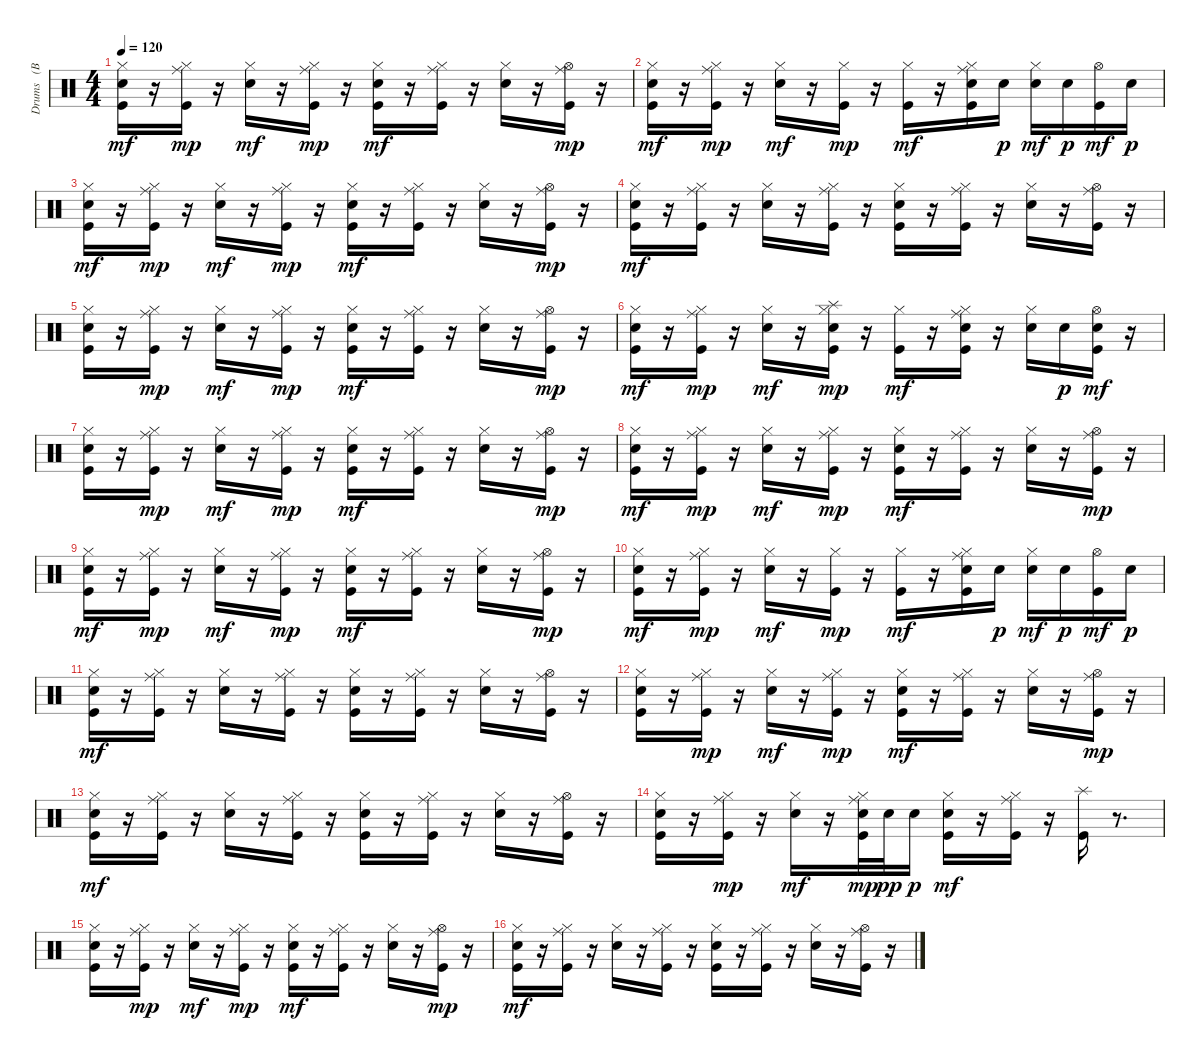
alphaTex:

\track ("Drums   (BB)" "Drums   (B") {instrument percussion}
\staff {score}
\articulation defaults
\ts (4 4)
\tempo 120
\clef neutral
\ks c
("Kick (hit)" "Electric Snare (hit)" "Hi-Hat (closed)").16{dy mf} r.16 ("Kick (hit)" "Hi-Hat (closed)" "Ride (middle)").16{dy mp} r.16 ("Electric Snare (hit)" "Hi-Hat (closed)").16{dy mf} r.16 ("Kick (hit)" "Hi-Hat (closed)" "Ride (middle)").16{dy mp} r.16 ("Kick (hit)" "Electric Snare (hit)" "Hi-Hat (closed)").16{dy mf} r.16 ("Kick (hit)" "Hi-Hat (closed)" "Ride (middle)").16 r.16 ("Electric Snare (hit)" "Hi-Hat (closed)").16 r.16 ("Kick (hit)" "Hi-Hat (open)" "Ride (middle)").16{dy mp} r.16 |
("Kick (hit)" "Electric Snare (hit)" "Hi-Hat (closed)").16{dy mf} r.16 ("Kick (hit)" "Hi-Hat (closed)" "Ride (middle)").16{dy mp} r.16 ("Electric Snare (hit)" "Hi-Hat (closed)").16{dy mf} r.16 ("Kick (hit)" "Hi-Hat (closed)").16{dy mp} r.16 ("Kick (hit)" "Hi-Hat (closed)").16{dy mf} r.16 ("Kick (hit)" "Electric Snare (hit)" "Hi-Hat (closed)" "Ride (middle)").16 "Electric Snare (hit)".16{dy p} ("Electric Snare (hit)" "Hi-Hat (closed)").16{dy mf} "Electric Snare (hit)".16{dy p} ("Kick (hit)" "Hi-Hat (open)").16{dy mf} "Electric Snare (hit)".16{dy p} |
("Kick (hit)" "Electric Snare (hit)" "Hi-Hat (closed)").16{dy mf} r.16 ("Kick (hit)" "Hi-Hat (closed)" "Ride (middle)").16{dy mp} r.16 ("Electric Snare (hit)" "Hi-Hat (closed)").16{dy mf} r.16 ("Kick (hit)" "Hi-Hat (closed)" "Ride (middle)").16{dy mp} r.16 ("Kick (hit)" "Electric Snare (hit)" "Hi-Hat (closed)").16{dy mf} r.16 ("Kick (hit)" "Hi-Hat (closed)" "Ride (middle)").16 r.16 ("Electric Snare (hit)" "Hi-Hat (closed)").16 r.16 ("Kick (hit)" "Hi-Hat (open)" "Ride (middle)").16{dy mp} r.16 |
("Kick (hit)" "Electric Snare (hit)" "Hi-Hat (closed)").16{dy mf} r.16 ("Kick (hit)" "Hi-Hat (closed)" "Ride (middle)").16 r.16 ("Electric Snare (hit)" "Hi-Hat (closed)").16 r.16 ("Kick (hit)" "Hi-Hat (closed)" "Ride (middle)").16 r.16 ("Kick (hit)" "Electric Snare (hit)" "Hi-Hat (closed)").16 r.16 ("Kick (hit)" "Hi-Hat (closed)" "Ride (middle)").16 r.16 ("Electric Snare (hit)" "Hi-Hat (closed)").16 r.16 ("Kick (hit)" "Hi-Hat (open)" "Ride (middle)").16 r.16 |
("Kick (hit)" "Electric Snare (hit)" "Hi-Hat (closed)").16 r.16 ("Kick (hit)" "Hi-Hat (closed)" "Ride (middle)").16{dy mp} r.16 ("Electric Snare (hit)" "Hi-Hat (closed)").16{dy mf} r.16 ("Kick (hit)" "Hi-Hat (closed)" "Ride (middle)").16{dy mp} r.16 ("Kick (hit)" "Electric Snare (hit)" "Hi-Hat (closed)").16{dy mf} r.16 ("Kick (hit)" "Hi-Hat (closed)" "Ride (middle)").16 r.16 ("Electric Snare (hit)" "Hi-Hat (closed)").16 r.16 ("Kick (hit)" "Hi-Hat (open)" "Ride (middle)").16{dy mp} r.16 |
("Kick (hit)" "Electric Snare (hit)" "Hi-Hat (closed)").16{dy mf} r.16 ("Kick (hit)" "Hi-Hat (closed)" "Ride (middle)").16{dy mp} r.16 ("Electric Snare (hit)" "Hi-Hat (closed)").16{dy mf} r.16 ("Kick (hit)" "Electric Snare (hit)" "Hi-Hat (closed)" "Splash (hit)").16{dy mp} r.16 ("Kick (hit)" "Hi-Hat (closed)").16{dy mf} r.16 ("Kick (hit)" "Electric Snare (hit)" "Hi-Hat (closed)" "Ride (middle)").16 r.16 ("Electric Snare (hit)" "Hi-Hat (closed)").16 "Electric Snare (hit)".16{dy p} ("Kick (hit)" "Electric Snare (hit)" "Hi-Hat (open)").16{dy mf} r.16 |
("Kick (hit)" "Electric Snare (hit)" "Hi-Hat (closed)").16 r.16 ("Kick (hit)" "Hi-Hat (closed)" "Ride (middle)").16{dy mp} r.16 ("Electric Snare (hit)" "Hi-Hat (closed)").16{dy mf} r.16 ("Kick (hit)" "Hi-Hat (closed)" "Ride (middle)").16{dy mp} r.16 ("Kick (hit)" "Electric Snare (hit)" "Hi-Hat (closed)").16{dy mf} r.16 ("Kick (hit)" "Hi-Hat (closed)" "Ride (middle)").16 r.16 ("Electric Snare (hit)" "Hi-Hat (closed)").16 r.16 ("Kick (hit)" "Hi-Hat (open)" "Ride (middle)").16{dy mp} r.16 |
("Kick (hit)" "Electric Snare (hit)" "Hi-Hat (closed)").16{dy mf} r.16 ("Kick (hit)" "Hi-Hat (closed)" "Ride (middle)").16{dy mp} r.16 ("Electric Snare (hit)" "Hi-Hat (closed)").16{dy mf} r.16 ("Kick (hit)" "Hi-Hat (closed)" "Ride (middle)").16{dy mp} r.16 ("Kick (hit)" "Electric Snare (hit)" "Hi-Hat (closed)").16{dy mf} r.16 ("Kick (hit)" "Hi-Hat (closed)" "Ride (middle)").16 r.16 ("Electric Snare (hit)" "Hi-Hat (closed)").16 r.16 ("Kick (hit)" "Hi-Hat (open)" "Ride (middle)").16{dy mp} r.16 |
("Kick (hit)" "Electric Snare (hit)" "Hi-Hat (closed)").16{dy mf} r.16 ("Kick (hit)" "Hi-Hat (closed)" "Ride (middle)").16{dy mp} r.16 ("Electric Snare (hit)" "Hi-Hat (closed)").16{dy mf} r.16 ("Kick (hit)" "Hi-Hat (closed)" "Ride (middle)").16{dy mp} r.16 ("Kick (hit)" "Electric Snare (hit)" "Hi-Hat (closed)").16{dy mf} r.16 ("Kick (hit)" "Hi-Hat (closed)" "Ride (middle)").16 r.16 ("Electric Snare (hit)" "Hi-Hat (closed)").16 r.16 ("Kick (hit)" "Hi-Hat (open)" "Ride (middle)").16{dy mp} r.16 |
("Kick (hit)" "Electric Snare (hit)" "Hi-Hat (closed)").16{dy mf} r.16 ("Kick (hit)" "Hi-Hat (closed)" "Ride (middle)").16{dy mp} r.16 ("Electric Snare (hit)" "Hi-Hat (closed)").16{dy mf} r.16 ("Kick (hit)" "Hi-Hat (closed)").16{dy mp} r.16 ("Kick (hit)" "Hi-Hat (closed)").16{dy mf} r.16 ("Kick (hit)" "Electric Snare (hit)" "Hi-Hat (closed)" "Ride (middle)").16 "Electric Snare (hit)".16{dy p} ("Electric Snare (hit)" "Hi-Hat (closed)").16{dy mf} "Electric Snare (hit)".16{dy p} ("Kick (hit)" "Hi-Hat (open)").16{dy mf} "Electric Snare (hit)".16{dy p} |
("Kick (hit)" "Electric Snare (hit)" "Hi-Hat (closed)").16{dy mf} r.16 ("Kick (hit)" "Hi-Hat (closed)" "Ride (middle)").16 r.16 ("Electric Snare (hit)" "Hi-Hat (closed)").16 r.16 ("Kick (hit)" "Hi-Hat (closed)" "Ride (middle)").16 r.16 ("Kick (hit)" "Electric Snare (hit)" "Hi-Hat (closed)").16 r.16 ("Kick (hit)" "Hi-Hat (closed)" "Ride (middle)").16 r.16 ("Electric Snare (hit)" "Hi-Hat (closed)").16 r.16 ("Kick (hit)" "Hi-Hat (open)" "Ride (middle)").16 r.16 |
("Kick (hit)" "Electric Snare (hit)" "Hi-Hat (closed)").16 r.16 ("Kick (hit)" "Hi-Hat (closed)" "Ride (middle)").16{dy mp} r.16 ("Electric Snare (hit)" "Hi-Hat (closed)").16{dy mf} r.16 ("Kick (hit)" "Hi-Hat (closed)" "Ride (middle)").16{dy mp} r.16 ("Kick (hit)" "Electric Snare (hit)" "Hi-Hat (closed)").16{dy mf} r.16 ("Kick (hit)" "Hi-Hat (closed)" "Ride (middle)").16 r.16 ("Electric Snare (hit)" "Hi-Hat (closed)").16 r.16 ("Kick (hit)" "Hi-Hat (open)" "Ride (middle)").16{dy mp} r.16 |
("Kick (hit)" "Electric Snare (hit)" "Hi-Hat (closed)").16{dy mf} r.16 ("Kick (hit)" "Hi-Hat (closed)" "Ride (middle)").16 r.16 ("Electric Snare (hit)" "Hi-Hat (closed)").16 r.16 ("Kick (hit)" "Hi-Hat (closed)" "Ride (middle)").16 r.16 ("Kick (hit)" "Electric Snare (hit)" "Hi-Hat (closed)").16 r.16 ("Kick (hit)" "Hi-Hat (closed)" "Ride (middle)").16 r.16 ("Electric Snare (hit)" "Hi-Hat (closed)").16 r.16 ("Kick (hit)" "Hi-Hat (open)" "Ride (middle)").16 r.16 |
("Kick (hit)" "Electric Snare (hit)" "Hi-Hat (closed)").16 r.16 ("Kick (hit)" "Hi-Hat (closed)" "Ride (middle)").16{dy mp} r.16 ("Electric Snare (hit)" "Hi-Hat (closed)").16{dy mf} r.16 ("Kick (hit)" "Electric Snare (hit)" "Hi-Hat (closed)" "Ride (middle)").32{dy mp} "Electric Snare (hit)".32{dy pp} "Electric Snare (hit)".16{dy p} ("Kick (hit)" "Electric Snare (hit)" "Hi-Hat (closed)").16{dy mf} r.16 ("Kick (hit)" "Hi-Hat (closed)" "Ride (middle)").16 r.16 ("Kick (hit)" "Splash (hit)").16 r.8{d} |
("Kick (hit)" "Electric Snare (hit)" "Hi-Hat (closed)").16 r.16 ("Kick (hit)" "Hi-Hat (closed)" "Ride (middle)").16{dy mp} r.16 ("Electric Snare (hit)" "Hi-Hat (closed)").16{dy mf} r.16 ("Kick (hit)" "Hi-Hat (closed)" "Ride (middle)").16{dy mp} r.16 ("Kick (hit)" "Electric Snare (hit)" "Hi-Hat (closed)").16{dy mf} r.16 ("Kick (hit)" "Hi-Hat (closed)" "Ride (middle)").16 r.16 ("Electric Snare (hit)" "Hi-Hat (closed)").16 r.16 ("Kick (hit)" "Hi-Hat (open)" "Ride (middle)").16{dy mp} r.16 |
("Kick (hit)" "Electric Snare (hit)" "Hi-Hat (closed)").16{dy mf} r.16 ("Kick (hit)" "Hi-Hat (closed)" "Ride (middle)").16 r.16 ("Electric Snare (hit)" "Hi-Hat (closed)").16 r.16 ("Kick (hit)" "Hi-Hat (closed)" "Ride (middle)").16 r.16 ("Kick (hit)" "Electric Snare (hit)" "Hi-Hat (closed)").16 r.16 ("Kick (hit)" "Hi-Hat (closed)" "Ride (middle)").16 r.16 ("Electric Snare (hit)" "Hi-Hat (closed)").16 r.16 ("Kick (hit)" "Hi-Hat (open)" "Ride (middle)").16 r.16
